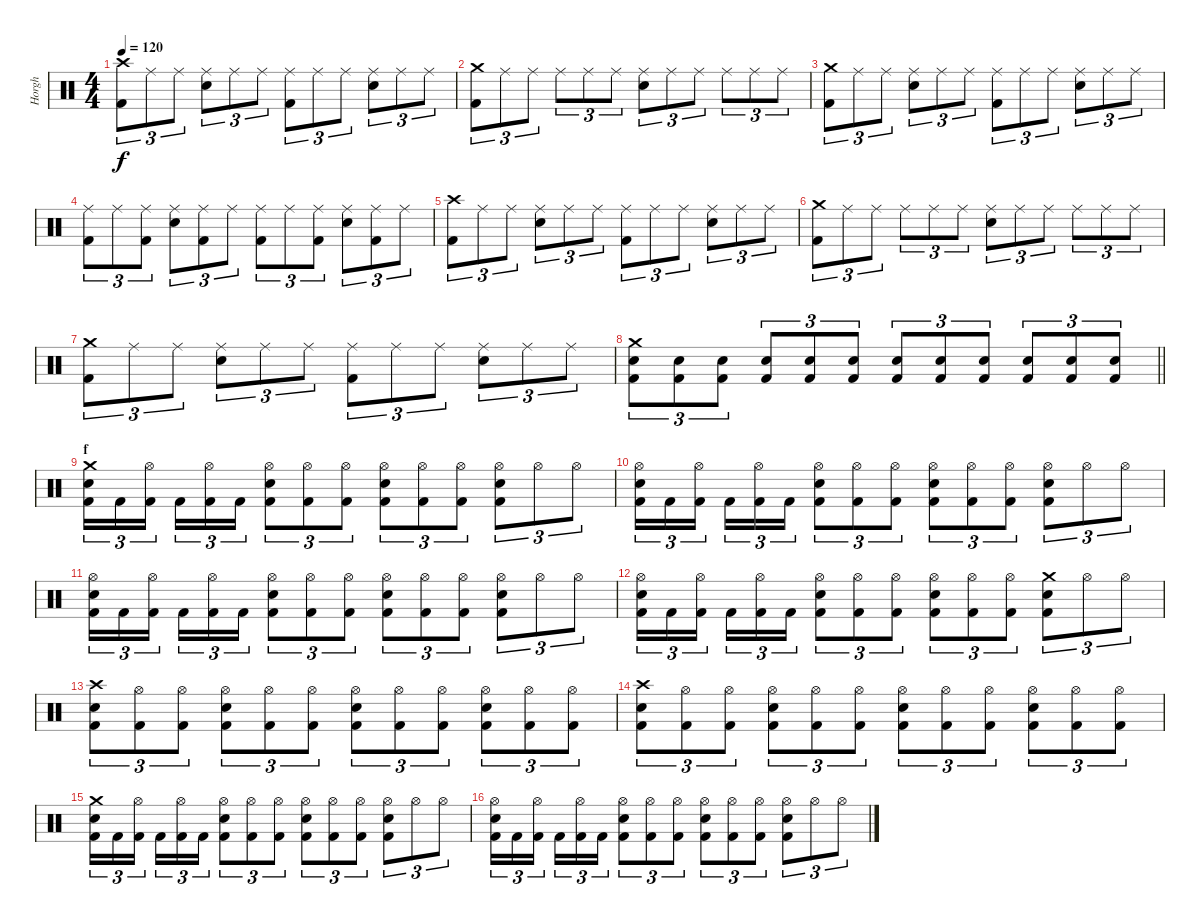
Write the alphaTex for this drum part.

\track ("Horgh" "Horgh") {instrument percussion}
\staff {score}
\articulation defaults
\ts (4 4)
\tempo 120
\clef neutral
\ks c
("Crash high (hit)" "Kick (hit) 2").8{tu (3 2) dy f} "Ride (middle)".8{tu (3 2)} "Ride (middle)".8{tu (3 2)} ("Ride (middle)" "Electric Snare (hit)").8{tu (3 2)} "Ride (middle)".8{tu (3 2)} "Ride (middle)".8{tu (3 2)} ("Ride (middle)" "Kick (hit) 2").8{tu (3 2)} "Ride (middle)".8{tu (3 2)} "Ride (middle)".8{tu (3 2)} ("Ride (middle)" "Electric Snare (hit)").8{tu (3 2)} "Ride (middle)".8{tu (3 2)} "Ride (middle)".8{tu (3 2)} |
("Crash medium (hit)" "Kick (hit) 2").8{tu (3 2)} "Ride (middle)".8{tu (3 2)} "Ride (middle)".8{tu (3 2)} "Ride (middle)".8{tu (3 2)} "Ride (middle)".8{tu (3 2)} "Ride (middle)".8{tu (3 2)} ("Ride (middle)" "Electric Snare (hit)").8{tu (3 2)} "Ride (middle)".8{tu (3 2)} "Ride (middle)".8{tu (3 2)} "Ride (middle)".8{tu (3 2)} "Ride (middle)".8{tu (3 2)} "Ride (middle)".8{tu (3 2)} |
("Crash medium (hit)" "Kick (hit) 2").8{tu (3 2)} "Ride (middle)".8{tu (3 2)} "Ride (middle)".8{tu (3 2)} ("Ride (middle)" "Electric Snare (hit)").8{tu (3 2)} "Ride (middle)".8{tu (3 2)} "Ride (middle)".8{tu (3 2)} ("Ride (middle)" "Kick (hit) 2").8{tu (3 2)} "Ride (middle)".8{tu (3 2)} "Ride (middle)".8{tu (3 2)} ("Ride (middle)" "Electric Snare (hit)").8{tu (3 2)} "Ride (middle)".8{tu (3 2)} "Ride (middle)".8{tu (3 2)} |
("Ride (middle)" "Kick (hit) 2").8{tu (3 2)} "Ride (middle)".8{tu (3 2)} ("Ride (middle)" "Kick (hit) 2").8{tu (3 2)} ("Ride (middle)" "Electric Snare (hit)").8{tu (3 2)} ("Ride (middle)" "Kick (hit) 2").8{tu (3 2)} "Ride (middle)".8{tu (3 2)} ("Ride (middle)" "Kick (hit) 2").8{tu (3 2)} "Ride (middle)".8{tu (3 2)} ("Ride (middle)" "Kick (hit) 2").8{tu (3 2)} ("Ride (middle)" "Electric Snare (hit)").8{tu (3 2)} ("Ride (middle)" "Kick (hit) 2").8{tu (3 2)} "Ride (middle)".8{tu (3 2)} |
("Crash high (hit)" "Kick (hit) 2").8{tu (3 2)} "Ride (middle)".8{tu (3 2)} "Ride (middle)".8{tu (3 2)} ("Ride (middle)" "Electric Snare (hit)").8{tu (3 2)} "Ride (middle)".8{tu (3 2)} "Ride (middle)".8{tu (3 2)} ("Ride (middle)" "Kick (hit) 2").8{tu (3 2)} "Ride (middle)".8{tu (3 2)} "Ride (middle)".8{tu (3 2)} ("Ride (middle)" "Electric Snare (hit)").8{tu (3 2)} "Ride (middle)".8{tu (3 2)} "Ride (middle)".8{tu (3 2)} |
("Crash medium (hit)" "Kick (hit) 2").8{tu (3 2)} "Ride (middle)".8{tu (3 2)} "Ride (middle)".8{tu (3 2)} "Ride (middle)".8{tu (3 2)} "Ride (middle)".8{tu (3 2)} "Ride (middle)".8{tu (3 2)} ("Ride (middle)" "Electric Snare (hit)").8{tu (3 2)} "Ride (middle)".8{tu (3 2)} "Ride (middle)".8{tu (3 2)} "Ride (middle)".8{tu (3 2)} "Ride (middle)".8{tu (3 2)} "Ride (middle)".8{tu (3 2)} |
("Crash medium (hit)" "Kick (hit) 2").8{tu (3 2)} "Ride (middle)".8{tu (3 2)} "Ride (middle)".8{tu (3 2)} ("Ride (middle)" "Electric Snare (hit)").8{tu (3 2)} "Ride (middle)".8{tu (3 2)} "Ride (middle)".8{tu (3 2)} ("Ride (middle)" "Kick (hit) 2").8{tu (3 2)} "Ride (middle)".8{tu (3 2)} "Ride (middle)".8{tu (3 2)} ("Ride (middle)" "Electric Snare (hit)").8{tu (3 2)} "Ride (middle)".8{tu (3 2)} "Ride (middle)".8{tu (3 2)} |
\barLineRight lightlight
("Crash medium (hit)" "Electric Snare (hit)" "Kick (hit) 2").8{tu (3 2)} ("Electric Snare (hit)" "Kick (hit) 2").8{tu (3 2)} ("Electric Snare (hit)" "Kick (hit) 2").8{tu (3 2)} ("Electric Snare (hit)" "Kick (hit) 2").8{tu (3 2)} ("Electric Snare (hit)" "Kick (hit) 2").8{tu (3 2)} ("Electric Snare (hit)" "Kick (hit) 2").8{tu (3 2)} ("Electric Snare (hit)" "Kick (hit) 2").8{tu (3 2)} ("Electric Snare (hit)" "Kick (hit) 2").8{tu (3 2)} ("Electric Snare (hit)" "Kick (hit) 2").8{tu (3 2)} ("Electric Snare (hit)" "Kick (hit) 2").8{tu (3 2)} ("Electric Snare (hit)" "Kick (hit) 2").8{tu (3 2)} ("Electric Snare (hit)" "Kick (hit) 2").8{tu (3 2)} |
\section ("" "f")
("Crash medium (hit)" "Electric Snare (hit)" "Kick (hit) 2").16{tu (3 2)} "Kick (hit) 2".16{tu (3 2)} ("Hi-Hat (open)" "Kick (hit) 2").16{tu (3 2) beam splitsecondary} "Kick (hit) 2".16{tu (3 2)} ("Hi-Hat (open)" "Kick (hit) 2").16{tu (3 2)} "Kick (hit) 2".16{tu (3 2)} ("Hi-Hat (open)" "Electric Snare (hit)" "Kick (hit) 2").8{tu (3 2)} ("Hi-Hat (open)" "Kick (hit) 2").8{tu (3 2)} ("Hi-Hat (open)" "Kick (hit) 2").8{tu (3 2)} ("Hi-Hat (open)" "Electric Snare (hit)" "Kick (hit) 2").8{tu (3 2)} ("Hi-Hat (open)" "Kick (hit) 2").8{tu (3 2)} ("Hi-Hat (open)" "Kick (hit) 2").8{tu (3 2)} ("Hi-Hat (open)" "Electric Snare (hit)" "Kick (hit) 2").8{tu (3 2)} "Hi-Hat (open)".8{tu (3 2)} "Hi-Hat (open)".8{tu (3 2)} |
("Hi-Hat (open)" "Electric Snare (hit)" "Kick (hit) 2").16{tu (3 2)} "Kick (hit) 2".16{tu (3 2)} ("Hi-Hat (open)" "Kick (hit) 2").16{tu (3 2) beam splitsecondary} "Kick (hit) 2".16{tu (3 2)} ("Hi-Hat (open)" "Kick (hit) 2").16{tu (3 2)} "Kick (hit) 2".16{tu (3 2)} ("Hi-Hat (open)" "Electric Snare (hit)" "Kick (hit) 2").8{tu (3 2)} ("Hi-Hat (open)" "Kick (hit) 2").8{tu (3 2)} ("Hi-Hat (open)" "Kick (hit) 2").8{tu (3 2)} ("Hi-Hat (open)" "Electric Snare (hit)" "Kick (hit) 2").8{tu (3 2)} ("Hi-Hat (open)" "Kick (hit) 2").8{tu (3 2)} ("Hi-Hat (open)" "Kick (hit) 2").8{tu (3 2)} ("Hi-Hat (open)" "Electric Snare (hit)" "Kick (hit) 2").8{tu (3 2)} "Hi-Hat (open)".8{tu (3 2)} "Hi-Hat (open)".8{tu (3 2)} |
("Hi-Hat (open)" "Electric Snare (hit)" "Kick (hit) 2").16{tu (3 2)} "Kick (hit) 2".16{tu (3 2)} ("Hi-Hat (open)" "Kick (hit) 2").16{tu (3 2) beam splitsecondary} "Kick (hit) 2".16{tu (3 2)} ("Hi-Hat (open)" "Kick (hit) 2").16{tu (3 2)} "Kick (hit) 2".16{tu (3 2)} ("Hi-Hat (open)" "Electric Snare (hit)" "Kick (hit) 2").8{tu (3 2)} ("Hi-Hat (open)" "Kick (hit) 2").8{tu (3 2)} ("Hi-Hat (open)" "Kick (hit) 2").8{tu (3 2)} ("Hi-Hat (open)" "Electric Snare (hit)" "Kick (hit) 2").8{tu (3 2)} ("Hi-Hat (open)" "Kick (hit) 2").8{tu (3 2)} ("Hi-Hat (open)" "Kick (hit) 2").8{tu (3 2)} ("Hi-Hat (open)" "Electric Snare (hit)" "Kick (hit) 2").8{tu (3 2)} "Hi-Hat (open)".8{tu (3 2)} "Hi-Hat (open)".8{tu (3 2)} |
("Hi-Hat (open)" "Electric Snare (hit)" "Kick (hit) 2").16{tu (3 2)} "Kick (hit) 2".16{tu (3 2)} ("Hi-Hat (open)" "Kick (hit) 2").16{tu (3 2) beam splitsecondary} "Kick (hit) 2".16{tu (3 2)} ("Hi-Hat (open)" "Kick (hit) 2").16{tu (3 2)} "Kick (hit) 2".16{tu (3 2)} ("Hi-Hat (open)" "Electric Snare (hit)" "Kick (hit) 2").8{tu (3 2)} ("Hi-Hat (open)" "Kick (hit) 2").8{tu (3 2)} ("Hi-Hat (open)" "Kick (hit) 2").8{tu (3 2)} ("Hi-Hat (open)" "Electric Snare (hit)" "Kick (hit) 2").8{tu (3 2)} ("Hi-Hat (open)" "Kick (hit) 2").8{tu (3 2)} ("Hi-Hat (open)" "Kick (hit) 2").8{tu (3 2)} ("Crash medium (hit)" "Electric Snare (hit)" "Kick (hit) 2").8{tu (3 2)} "Hi-Hat (open)".8{tu (3 2)} "Hi-Hat (open)".8{tu (3 2)} |
("Crash high (hit)" "Electric Snare (hit)" "Kick (hit) 2").8{tu (3 2)} ("Hi-Hat (open)" "Kick (hit) 2").8{tu (3 2)} ("Hi-Hat (open)" "Kick (hit) 2").8{tu (3 2)} ("Hi-Hat (open)" "Electric Snare (hit)" "Kick (hit) 2").8{tu (3 2)} ("Hi-Hat (open)" "Kick (hit) 2").8{tu (3 2)} ("Hi-Hat (open)" "Kick (hit) 2").8{tu (3 2)} ("Hi-Hat (open)" "Electric Snare (hit)" "Kick (hit) 2").8{tu (3 2)} ("Hi-Hat (open)" "Kick (hit) 2").8{tu (3 2)} ("Hi-Hat (open)" "Kick (hit) 2").8{tu (3 2)} ("Hi-Hat (open)" "Electric Snare (hit)" "Kick (hit) 2").8{tu (3 2)} ("Hi-Hat (open)" "Kick (hit) 2").8{tu (3 2)} ("Hi-Hat (open)" "Kick (hit) 2").8{tu (3 2)} |
("Crash high (hit)" "Electric Snare (hit)" "Kick (hit) 2").8{tu (3 2)} ("Hi-Hat (open)" "Kick (hit) 2").8{tu (3 2)} ("Hi-Hat (open)" "Kick (hit) 2").8{tu (3 2)} ("Hi-Hat (open)" "Electric Snare (hit)" "Kick (hit) 2").8{tu (3 2)} ("Hi-Hat (open)" "Kick (hit) 2").8{tu (3 2)} ("Hi-Hat (open)" "Kick (hit) 2").8{tu (3 2)} ("Hi-Hat (open)" "Electric Snare (hit)" "Kick (hit) 2").8{tu (3 2)} ("Hi-Hat (open)" "Kick (hit) 2").8{tu (3 2)} ("Hi-Hat (open)" "Kick (hit) 2").8{tu (3 2)} ("Hi-Hat (open)" "Electric Snare (hit)" "Kick (hit) 2").8{tu (3 2)} ("Hi-Hat (open)" "Kick (hit) 2").8{tu (3 2)} ("Hi-Hat (open)" "Kick (hit) 2").8{tu (3 2)} |
("Crash medium (hit)" "Electric Snare (hit)" "Kick (hit) 2").16{tu (3 2)} "Kick (hit) 2".16{tu (3 2)} ("Hi-Hat (open)" "Kick (hit) 2").16{tu (3 2) beam splitsecondary} "Kick (hit) 2".16{tu (3 2)} ("Hi-Hat (open)" "Kick (hit) 2").16{tu (3 2)} "Kick (hit) 2".16{tu (3 2)} ("Hi-Hat (open)" "Electric Snare (hit)" "Kick (hit) 2").8{tu (3 2)} ("Hi-Hat (open)" "Kick (hit) 2").8{tu (3 2)} ("Hi-Hat (open)" "Kick (hit) 2").8{tu (3 2)} ("Hi-Hat (open)" "Electric Snare (hit)" "Kick (hit) 2").8{tu (3 2)} ("Hi-Hat (open)" "Kick (hit) 2").8{tu (3 2)} ("Hi-Hat (open)" "Kick (hit) 2").8{tu (3 2)} ("Hi-Hat (open)" "Electric Snare (hit)" "Kick (hit) 2").8{tu (3 2)} "Hi-Hat (open)".8{tu (3 2)} "Hi-Hat (open)".8{tu (3 2)} |
("Hi-Hat (open)" "Electric Snare (hit)" "Kick (hit) 2").16{tu (3 2)} "Kick (hit) 2".16{tu (3 2)} ("Hi-Hat (open)" "Kick (hit) 2").16{tu (3 2) beam splitsecondary} "Kick (hit) 2".16{tu (3 2)} ("Hi-Hat (open)" "Kick (hit) 2").16{tu (3 2)} "Kick (hit) 2".16{tu (3 2)} ("Hi-Hat (open)" "Electric Snare (hit)" "Kick (hit) 2").8{tu (3 2)} ("Hi-Hat (open)" "Kick (hit) 2").8{tu (3 2)} ("Hi-Hat (open)" "Kick (hit) 2").8{tu (3 2)} ("Hi-Hat (open)" "Electric Snare (hit)" "Kick (hit) 2").8{tu (3 2)} ("Hi-Hat (open)" "Kick (hit) 2").8{tu (3 2)} ("Hi-Hat (open)" "Kick (hit) 2").8{tu (3 2)} ("Hi-Hat (open)" "Electric Snare (hit)" "Kick (hit) 2").8{tu (3 2)} "Hi-Hat (open)".8{tu (3 2)} "Hi-Hat (open)".8{tu (3 2)}
